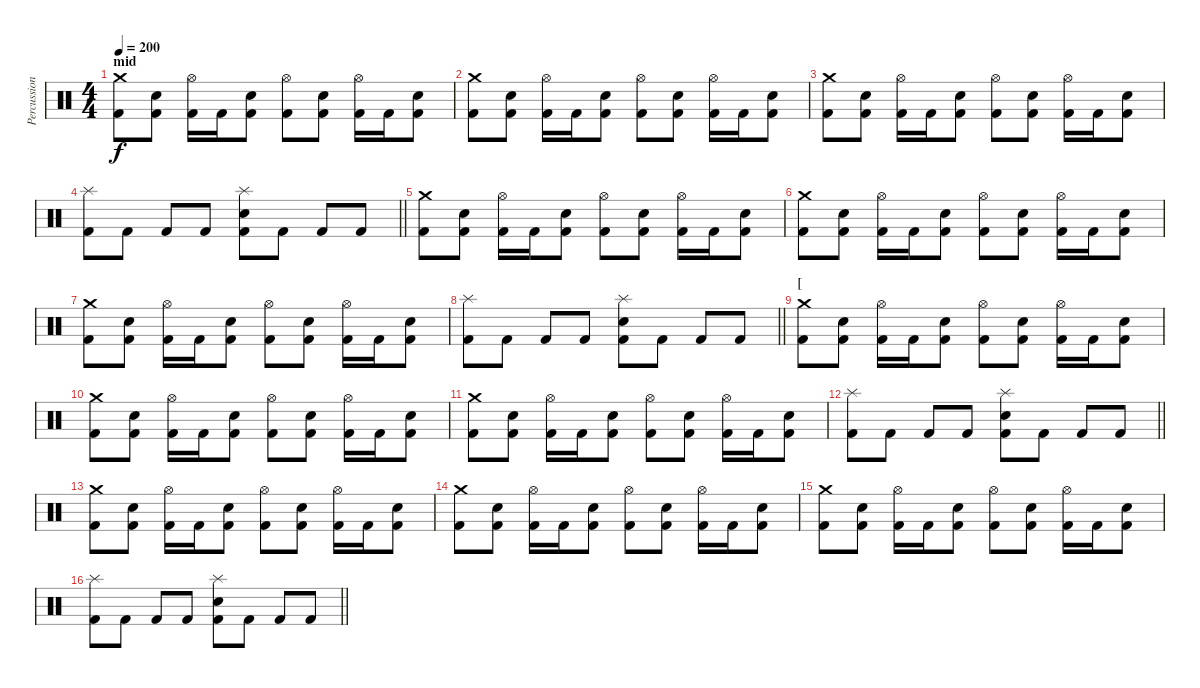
\track ("Percussion" "Percussion") {instrument percussion}
\staff {score}
\articulation defaults
\ts (4 4)
\section ("" "mid")
\tempo 200
\clef neutral
\ks c
("Crash medium (hit)" "Kick (hit) 2").8{dy f} ("Electric Snare (hit)" "Kick (hit) 2").8 ("Hi-Hat (open)" "Kick (hit) 2").16 "Kick (hit) 2".16 ("Electric Snare (hit)" "Kick (hit) 2").8 ("Hi-Hat (open)" "Kick (hit) 2").8 ("Electric Snare (hit)" "Kick (hit) 2").8 ("Hi-Hat (open)" "Kick (hit) 2").16 "Kick (hit) 2".16 ("Electric Snare (hit)" "Kick (hit) 2").8 |
("Crash medium (hit)" "Kick (hit) 2").8 ("Electric Snare (hit)" "Kick (hit) 2").8 ("Hi-Hat (open)" "Kick (hit) 2").16 "Kick (hit) 2".16 ("Electric Snare (hit)" "Kick (hit) 2").8 ("Hi-Hat (open)" "Kick (hit) 2").8 ("Electric Snare (hit)" "Kick (hit) 2").8 ("Hi-Hat (open)" "Kick (hit) 2").16 "Kick (hit) 2".16 ("Electric Snare (hit)" "Kick (hit) 2").8 |
("Crash medium (hit)" "Kick (hit) 2").8 ("Electric Snare (hit)" "Kick (hit) 2").8 ("Hi-Hat (open)" "Kick (hit) 2").16 "Kick (hit) 2".16 ("Electric Snare (hit)" "Kick (hit) 2").8 ("Hi-Hat (open)" "Kick (hit) 2").8 ("Electric Snare (hit)" "Kick (hit) 2").8 ("Hi-Hat (open)" "Kick (hit) 2").16 "Kick (hit) 2".16 ("Electric Snare (hit)" "Kick (hit) 2").8 |
\barLineRight lightlight
("Splash (hit)" "Kick (hit) 2").8 "Kick (hit) 2".8 "Kick (hit) 2".8 "Kick (hit) 2".8 ("Splash (hit)" "Electric Snare (hit)" "Kick (hit) 2").8 "Kick (hit) 2".8 "Kick (hit) 2".8 "Kick (hit) 2".8 |
("Crash medium (hit)" "Kick (hit) 2").8 ("Electric Snare (hit)" "Kick (hit) 2").8 ("Hi-Hat (open)" "Kick (hit) 2").16 "Kick (hit) 2".16 ("Electric Snare (hit)" "Kick (hit) 2").8 ("Hi-Hat (open)" "Kick (hit) 2").8 ("Electric Snare (hit)" "Kick (hit) 2").8 ("Hi-Hat (open)" "Kick (hit) 2").16 "Kick (hit) 2".16 ("Electric Snare (hit)" "Kick (hit) 2").8 |
("Crash medium (hit)" "Kick (hit) 2").8 ("Electric Snare (hit)" "Kick (hit) 2").8 ("Hi-Hat (open)" "Kick (hit) 2").16 "Kick (hit) 2".16 ("Electric Snare (hit)" "Kick (hit) 2").8 ("Hi-Hat (open)" "Kick (hit) 2").8 ("Electric Snare (hit)" "Kick (hit) 2").8 ("Hi-Hat (open)" "Kick (hit) 2").16 "Kick (hit) 2".16 ("Electric Snare (hit)" "Kick (hit) 2").8 |
("Crash medium (hit)" "Kick (hit) 2").8 ("Electric Snare (hit)" "Kick (hit) 2").8 ("Hi-Hat (open)" "Kick (hit) 2").16 "Kick (hit) 2".16 ("Electric Snare (hit)" "Kick (hit) 2").8 ("Hi-Hat (open)" "Kick (hit) 2").8 ("Electric Snare (hit)" "Kick (hit) 2").8 ("Hi-Hat (open)" "Kick (hit) 2").16 "Kick (hit) 2".16 ("Electric Snare (hit)" "Kick (hit) 2").8 |
\barLineRight lightlight
("Splash (hit)" "Kick (hit) 2").8 "Kick (hit) 2".8 "Kick (hit) 2".8 "Kick (hit) 2".8 ("Splash (hit)" "Electric Snare (hit)" "Kick (hit) 2").8 "Kick (hit) 2".8 "Kick (hit) 2".8 "Kick (hit) 2".8 |
\section ("" "[")
("Crash medium (hit)" "Kick (hit) 2").8 ("Electric Snare (hit)" "Kick (hit) 2").8 ("Hi-Hat (open)" "Kick (hit) 2").16 "Kick (hit) 2".16 ("Electric Snare (hit)" "Kick (hit) 2").8 ("Hi-Hat (open)" "Kick (hit) 2").8 ("Electric Snare (hit)" "Kick (hit) 2").8 ("Hi-Hat (open)" "Kick (hit) 2").16 "Kick (hit) 2".16 ("Electric Snare (hit)" "Kick (hit) 2").8 |
("Crash medium (hit)" "Kick (hit) 2").8 ("Electric Snare (hit)" "Kick (hit) 2").8 ("Hi-Hat (open)" "Kick (hit) 2").16 "Kick (hit) 2".16 ("Electric Snare (hit)" "Kick (hit) 2").8 ("Hi-Hat (open)" "Kick (hit) 2").8 ("Electric Snare (hit)" "Kick (hit) 2").8 ("Hi-Hat (open)" "Kick (hit) 2").16 "Kick (hit) 2".16 ("Electric Snare (hit)" "Kick (hit) 2").8 |
("Crash medium (hit)" "Kick (hit) 2").8 ("Electric Snare (hit)" "Kick (hit) 2").8 ("Hi-Hat (open)" "Kick (hit) 2").16 "Kick (hit) 2".16 ("Electric Snare (hit)" "Kick (hit) 2").8 ("Hi-Hat (open)" "Kick (hit) 2").8 ("Electric Snare (hit)" "Kick (hit) 2").8 ("Hi-Hat (open)" "Kick (hit) 2").16 "Kick (hit) 2".16 ("Electric Snare (hit)" "Kick (hit) 2").8 |
\barLineRight lightlight
("Splash (hit)" "Kick (hit) 2").8 "Kick (hit) 2".8 "Kick (hit) 2".8 "Kick (hit) 2".8 ("Splash (hit)" "Electric Snare (hit)" "Kick (hit) 2").8 "Kick (hit) 2".8 "Kick (hit) 2".8 "Kick (hit) 2".8 |
("Crash medium (hit)" "Kick (hit) 2").8 ("Electric Snare (hit)" "Kick (hit) 2").8 ("Hi-Hat (open)" "Kick (hit) 2").16 "Kick (hit) 2".16 ("Electric Snare (hit)" "Kick (hit) 2").8 ("Hi-Hat (open)" "Kick (hit) 2").8 ("Electric Snare (hit)" "Kick (hit) 2").8 ("Hi-Hat (open)" "Kick (hit) 2").16 "Kick (hit) 2".16 ("Electric Snare (hit)" "Kick (hit) 2").8 |
("Crash medium (hit)" "Kick (hit) 2").8 ("Electric Snare (hit)" "Kick (hit) 2").8 ("Hi-Hat (open)" "Kick (hit) 2").16 "Kick (hit) 2".16 ("Electric Snare (hit)" "Kick (hit) 2").8 ("Hi-Hat (open)" "Kick (hit) 2").8 ("Electric Snare (hit)" "Kick (hit) 2").8 ("Hi-Hat (open)" "Kick (hit) 2").16 "Kick (hit) 2".16 ("Electric Snare (hit)" "Kick (hit) 2").8 |
("Crash medium (hit)" "Kick (hit) 2").8 ("Electric Snare (hit)" "Kick (hit) 2").8 ("Hi-Hat (open)" "Kick (hit) 2").16 "Kick (hit) 2".16 ("Electric Snare (hit)" "Kick (hit) 2").8 ("Hi-Hat (open)" "Kick (hit) 2").8 ("Electric Snare (hit)" "Kick (hit) 2").8 ("Hi-Hat (open)" "Kick (hit) 2").16 "Kick (hit) 2".16 ("Electric Snare (hit)" "Kick (hit) 2").8 |
\barLineRight lightlight
("Splash (hit)" "Kick (hit) 2").8 "Kick (hit) 2".8 "Kick (hit) 2".8 "Kick (hit) 2".8 ("Splash (hit)" "Electric Snare (hit)" "Kick (hit) 2").8 "Kick (hit) 2".8 "Kick (hit) 2".8 "Kick (hit) 2".8
